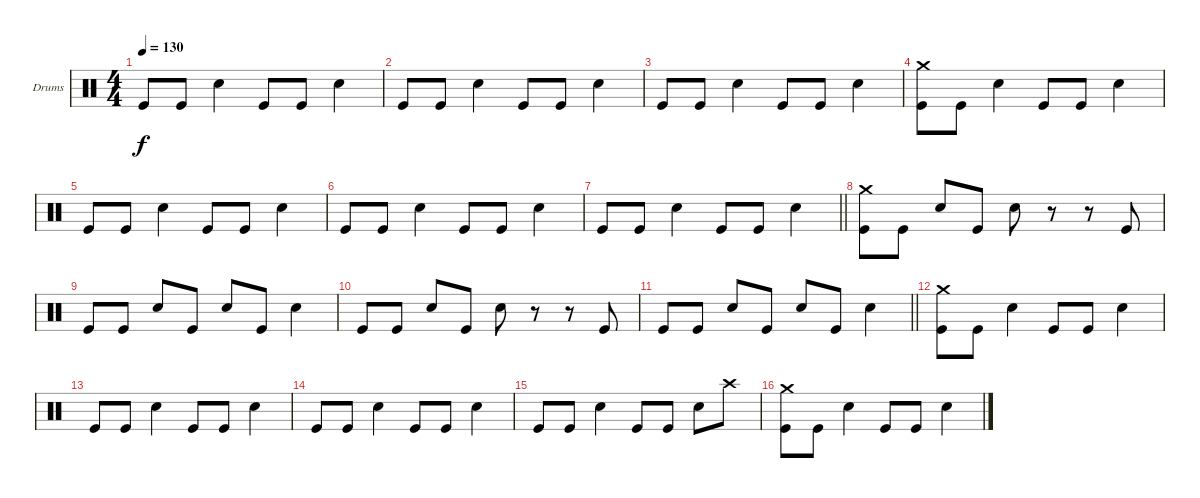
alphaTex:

\defaultSystemsLayout 4
\bracketExtendMode groupsimilarinstruments
\firstSystemTrackNameOrientation horizontal
\otherSystemsTrackNameOrientation horizontal
\track ("Drums" "Drums") {instrument percussion}
\staff {score}
\articulation defaults
\ts (4 4)
\tempo 130
\clef neutral
\ks aminor "Kick (hit)".8{dy f} "Kick (hit)".8 "Snare (hit) 2".4 "Kick (hit)".8 "Kick (hit)".8 "Snare (hit) 2".4
|
"Kick (hit)".8 "Kick (hit)".8 "Snare (hit) 2".4 "Kick (hit)".8 "Kick (hit)".8 "Snare (hit) 2".4 |
"Kick (hit)".8 "Kick (hit)".8 "Snare (hit) 2".4 "Kick (hit)".8 "Kick (hit)".8 "Snare (hit) 2".4 |
("Kick (hit)" "Crash medium (hit)").8 "Kick (hit)".8 "Snare (hit) 2".4 "Kick (hit)".8 "Kick (hit)".8 "Snare (hit) 2".4 |
"Kick (hit)".8 "Kick (hit)".8 "Snare (hit) 2".4 "Kick (hit)".8 "Kick (hit)".8 "Snare (hit) 2".4 |
"Kick (hit)".8 "Kick (hit)".8 "Snare (hit) 2".4 "Kick (hit)".8 "Kick (hit)".8 "Snare (hit) 2".4 |
\barLineRight lightlight "Kick (hit)".8 "Kick (hit)".8 "Snare (hit) 2".4 "Kick (hit)".8 "Kick (hit)".8 "Snare (hit) 2".4
|
("Kick (hit)" "Crash medium (hit)").8 "Kick (hit)".8 "Snare (hit) 2".8 "Kick (hit)".8 "Snare (hit) 2".8 r.8 r.8 "Kick (hit)".8 |
"Kick (hit)".8 "Kick (hit)".8 "Snare (hit) 2".8 "Kick (hit)".8 "Snare (hit) 2".8 "Kick (hit)".8 "Snare (hit) 2".4 |
"Kick (hit)".8 "Kick (hit)".8 "Snare (hit) 2".8 "Kick (hit)".8 "Snare (hit) 2".8 r.8 r.8 "Kick (hit)".8 |
\barLineRight lightlight "Kick (hit)".8 "Kick (hit)".8 "Snare (hit) 2".8 "Kick (hit)".8 "Snare (hit) 2".8 "Kick (hit)".8 "Snare (hit) 2".4
|
("Kick (hit)" "Crash medium (hit)").8 "Kick (hit)".8 "Snare (hit) 2".4 "Kick (hit)".8 "Kick (hit)".8 "Snare (hit) 2".4 |
"Kick (hit)".8 "Kick (hit)".8 "Snare (hit) 2".4 "Kick (hit)".8 "Kick (hit)".8 "Snare (hit) 2".4 |
"Kick (hit)".8 "Kick (hit)".8 "Snare (hit) 2".4 "Kick (hit)".8 "Kick (hit)".8 "Snare (hit) 2".4 |
"Kick (hit)".8 "Kick (hit)".8 "Snare (hit) 2".4 "Kick (hit)".8 "Kick (hit)".8 "Snare (hit) 2".8 "Crash high (hit)".8 |
("Kick (hit)" "Crash medium (hit)").8 "Kick (hit)".8 "Snare (hit) 2".4 "Kick (hit)".8 "Kick (hit)".8 "Snare (hit) 2".4
